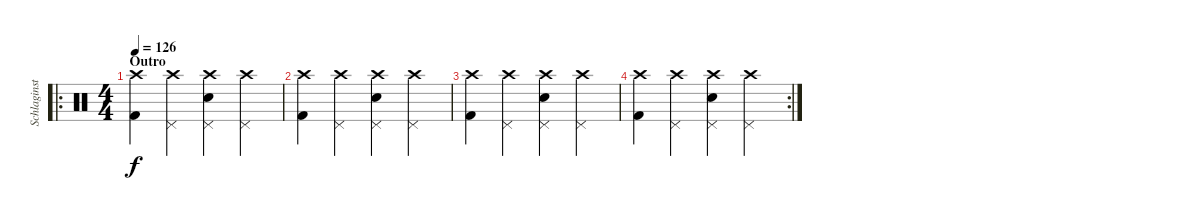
\track ("Schlaginstrumente - Auswahl" "Schlaginst") {instrument percussion}
\staff {score}
\articulation defaults
\ro
\ts (4 4)
\section ("" "Outro")
\tempo 126
\clef neutral
\ks c
("Crash high (hit)" "Kick (hit) 2").4{dy f} ("Pedal Hi-Hat (hit)" "Crash high (hit)").4 ("Pedal Hi-Hat (hit)" "Crash high (hit)" "Electric Snare (hit)").4 ("Pedal Hi-Hat (hit)" "Crash high (hit)").4 |
("Crash high (hit)" "Kick (hit) 2").4 ("Pedal Hi-Hat (hit)" "Crash high (hit)").4 ("Pedal Hi-Hat (hit)" "Crash high (hit)" "Electric Snare (hit)").4 ("Pedal Hi-Hat (hit)" "Crash high (hit)").4 |
("Crash high (hit)" "Kick (hit) 2").4 ("Pedal Hi-Hat (hit)" "Crash high (hit)").4 ("Pedal Hi-Hat (hit)" "Crash high (hit)" "Electric Snare (hit)").4 ("Pedal Hi-Hat (hit)" "Crash high (hit)").4 |
\rc 2
("Crash high (hit)" "Kick (hit) 2").4 ("Pedal Hi-Hat (hit)" "Crash high (hit)").4 ("Pedal Hi-Hat (hit)" "Crash high (hit)" "Electric Snare (hit)").4 ("Pedal Hi-Hat (hit)" "Crash high (hit)").4
